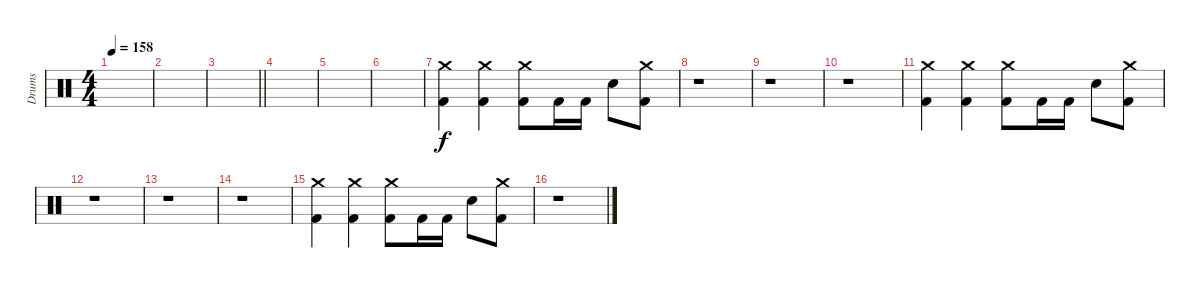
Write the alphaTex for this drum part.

\track ("Drums" "Drums") {instrument percussion}
\staff {score}
\articulation defaults
\ts (4 4)
\tempo 158
\clef neutral
\ks c
|
|
\barLineRight lightlight
|
|
|
|
("Crash medium (hit)" "Kick (hit) 2").4 ("Crash medium (hit)" "Kick (hit) 2").4 ("Crash medium (hit)" "Kick (hit) 2").8 "Kick (hit) 2".16 "Kick (hit) 2".16 "Electric Snare (hit)".8 ("Crash medium (hit)" "Kick (hit) 2").8 |
r.1 |
r.1 |
r.1 |
("Crash medium (hit)" "Kick (hit) 2").4 ("Crash medium (hit)" "Kick (hit) 2").4 ("Crash medium (hit)" "Kick (hit) 2").8 "Kick (hit) 2".16 "Kick (hit) 2".16 "Electric Snare (hit)".8 ("Crash medium (hit)" "Kick (hit) 2").8 |
r.1 |
r.1 |
r.1 |
("Crash medium (hit)" "Kick (hit) 2").4 ("Crash medium (hit)" "Kick (hit) 2").4 ("Crash medium (hit)" "Kick (hit) 2").8 "Kick (hit) 2".16 "Kick (hit) 2".16 "Electric Snare (hit)".8 ("Crash medium (hit)" "Kick (hit) 2").8 |
r.1
